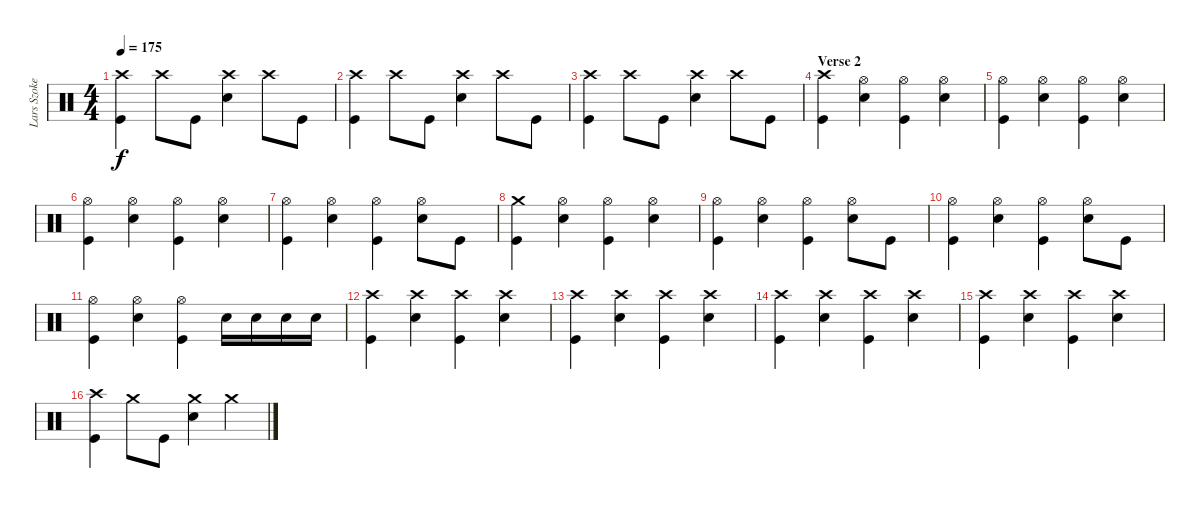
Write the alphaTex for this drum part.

\track ("Lars Szoke" "Lars Szoke") {instrument percussion}
\staff {score}
\articulation defaults
\ts (4 4)
\tempo 175
\clef neutral
\ks c
("Crash high (hit)" "Kick (hit)").4{dy f} "Crash high (hit)".8 "Kick (hit)".8 ("Crash high (hit)" "Electric Snare (hit)").4 "Crash high (hit)".8 "Kick (hit)".8 |
("Crash high (hit)" "Kick (hit)").4 "Crash high (hit)".8 "Kick (hit)".8 ("Crash high (hit)" "Electric Snare (hit)").4 "Crash high (hit)".8 "Kick (hit)".8 |
("Crash high (hit)" "Kick (hit)").4 "Crash high (hit)".8 "Kick (hit)".8 ("Crash high (hit)" "Electric Snare (hit)").4 "Crash high (hit)".8 "Kick (hit)".8 |
\section ("" "Verse 2")
("Crash high (hit)" "Kick (hit)").4 ("Hi-Hat (open)" "Electric Snare (hit)").4 ("Hi-Hat (open)" "Kick (hit)").4 ("Hi-Hat (open)" "Electric Snare (hit)").4 |
("Hi-Hat (open)" "Kick (hit)").4 ("Hi-Hat (open)" "Electric Snare (hit)").4 ("Hi-Hat (open)" "Kick (hit)").4 ("Hi-Hat (open)" "Electric Snare (hit)").4 |
("Hi-Hat (open)" "Kick (hit)").4 ("Hi-Hat (open)" "Electric Snare (hit)").4 ("Hi-Hat (open)" "Kick (hit)").4 ("Hi-Hat (open)" "Electric Snare (hit)").4 |
("Hi-Hat (open)" "Kick (hit)").4 ("Hi-Hat (open)" "Electric Snare (hit)").4 ("Hi-Hat (open)" "Kick (hit)").4 ("Hi-Hat (open)" "Electric Snare (hit)").8 "Kick (hit)".8 |
("Crash medium (hit)" "Kick (hit)").4 ("Hi-Hat (open)" "Electric Snare (hit)").4 ("Hi-Hat (open)" "Kick (hit)").4 ("Hi-Hat (open)" "Electric Snare (hit)").4 |
("Hi-Hat (open)" "Kick (hit)").4 ("Hi-Hat (open)" "Electric Snare (hit)").4 ("Hi-Hat (open)" "Kick (hit)").4 ("Hi-Hat (open)" "Electric Snare (hit)").8 "Kick (hit)".8 |
("Hi-Hat (open)" "Kick (hit)").4 ("Hi-Hat (open)" "Electric Snare (hit)").4 ("Hi-Hat (open)" "Kick (hit)").4 ("Hi-Hat (open)" "Electric Snare (hit)").8 "Kick (hit)".8 |
("Hi-Hat (open)" "Kick (hit)").4 ("Hi-Hat (open)" "Electric Snare (hit)").4 ("Hi-Hat (open)" "Kick (hit)").4 "Electric Snare (hit)".16 "Electric Snare (hit)".16 "Electric Snare (hit)".16 "Electric Snare (hit)".16 |
("Crash high (hit)" "Kick (hit)").4 ("Crash high (hit)" "Electric Snare (hit)").4 ("Crash high (hit)" "Kick (hit)").4 ("Crash high (hit)" "Electric Snare (hit)").4 |
("Crash high (hit)" "Kick (hit)").4 ("Crash high (hit)" "Electric Snare (hit)").4 ("Crash high (hit)" "Kick (hit)").4 ("Crash high (hit)" "Electric Snare (hit)").4 |
("Crash high (hit)" "Kick (hit)").4 ("Crash high (hit)" "Electric Snare (hit)").4 ("Crash high (hit)" "Kick (hit)").4 ("Crash high (hit)" "Electric Snare (hit)").4 |
("Crash high (hit)" "Kick (hit)").4 ("Crash high (hit)" "Electric Snare (hit)").4 ("Crash high (hit)" "Kick (hit)").4 ("Crash high (hit)" "Electric Snare (hit)").4 |
("Crash high (hit)" "Kick (hit)").4 "Crash medium (hit)".8 "Kick (hit)".8 ("Crash medium (hit)" "Electric Snare (hit)").4 "Crash medium (hit)".4
